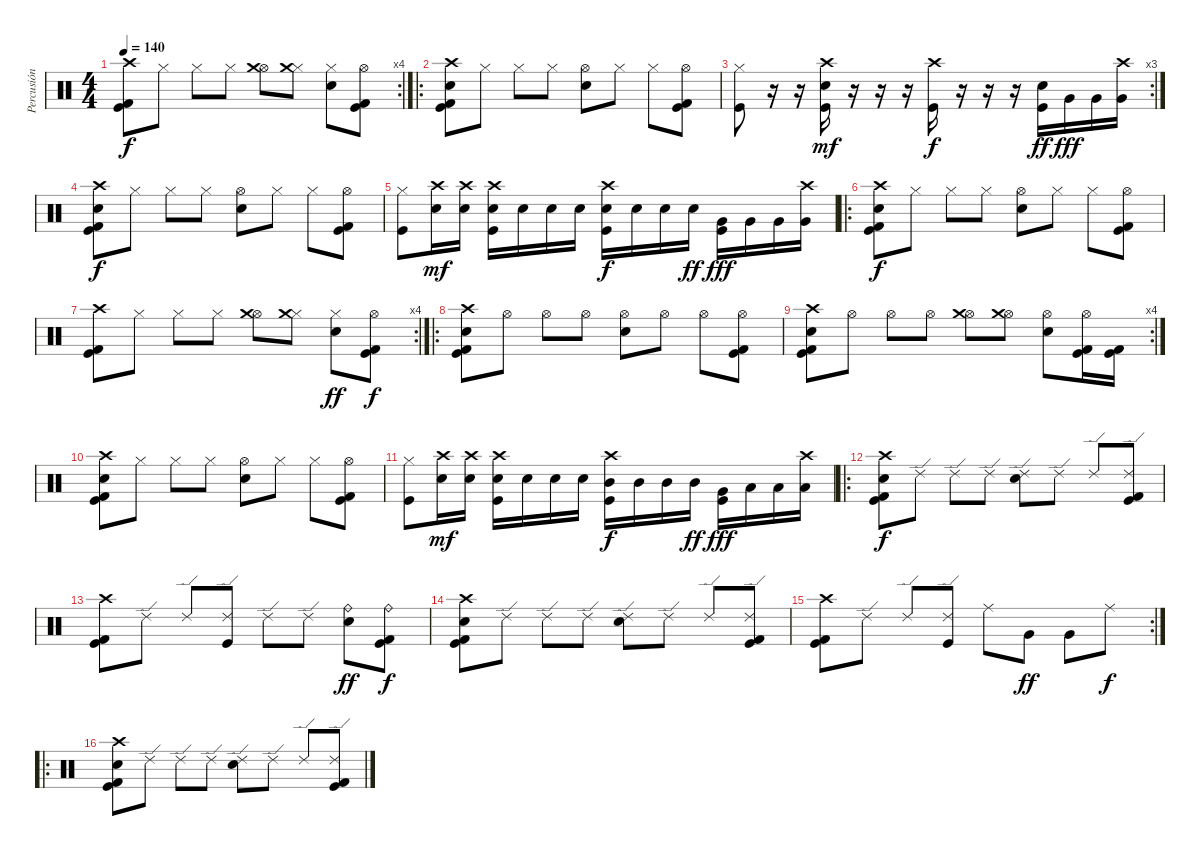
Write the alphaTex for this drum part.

\track ("Percusión" "Percusión") {instrument percussion}
\staff {score}
\articulation defaults
\rc 4
\ts (4 4)
\tempo 140
\clef neutral
\ks c
("Crash high (hit)" "Kick (hit)" "Kick (hit) 2").8{dy f} "Hi-Hat (closed)".8 "Hi-Hat (closed)".8 "Hi-Hat (closed)".8 ("Hi-Hat (open)" "Crash medium (hit)").8 ("Hi-Hat (closed)" "Crash medium (hit)").8 ("Hi-Hat (closed)" "Electric Snare (hit)").8 ("Hi-Hat (open)" "Kick (hit) 2" "Kick (hit)").8 |
\ro
("Crash high (hit)" "Electric Snare (hit)" "Kick (hit)" "Kick (hit) 2").8 "Hi-Hat (closed)".8 "Hi-Hat (closed)".8 "Hi-Hat (closed)".8 ("Hi-Hat (open)" "Electric Snare (hit)").8 "Hi-Hat (closed)".8 "Hi-Hat (closed)".8 ("Hi-Hat (open)" "Kick (hit) 2" "Kick (hit)").8 |
\rc 3
("Hi-Hat (closed)" "Kick (hit)").8 r.16 r.16 ("Crash high (hit)" "Electric Snare (hit)" "Kick (hit)").16{dy mf} r.16 r.16 r.16 ("Crash high (hit)" "Kick (hit)").16{dy f} r.16 r.16 r.16 ("Electric Snare (hit)" "Kick (hit)").16{dy ff} "Very Low Tom (hit)".16{dy fff} "Very Low Tom (hit)".16 ("Crash high (hit)" "Very Low Tom (hit)").16 |
("Crash high (hit)" "Electric Snare (hit)" "Kick (hit)" "Kick (hit) 2").8{dy f} "Hi-Hat (closed)".8 "Hi-Hat (closed)".8 "Hi-Hat (closed)".8 ("Hi-Hat (open)" "Electric Snare (hit)").8 "Hi-Hat (closed)".8 "Hi-Hat (closed)".8 ("Hi-Hat (open)" "Kick (hit) 2" "Kick (hit)").8 |
("Hi-Hat (closed)" "Kick (hit)").8 ("Crash high (hit)" "Electric Snare (hit)").16{dy mf} ("Crash high (hit)" "Electric Snare (hit)").16 ("Crash high (hit)" "Electric Snare (hit)" "Kick (hit)").16 "Electric Snare (hit)".16 "Electric Snare (hit)".16 "Electric Snare (hit)".16 ("Crash high (hit)" "Electric Snare (hit)" "Kick (hit)").16{dy f} "Electric Snare (hit)".16 "Electric Snare (hit)".16 "Electric Snare (hit)".16{dy ff} ("Very Low Tom (hit)" "Kick (hit)").16{dy fff} "Very Low Tom (hit)".16 "Very Low Tom (hit)".16 ("Crash high (hit)" "Very Low Tom (hit)").16 |
\ro
("Crash high (hit)" "Electric Snare (hit)" "Kick (hit)" "Kick (hit) 2").8{dy f} "Hi-Hat (closed)".8 "Hi-Hat (closed)".8 "Hi-Hat (closed)".8 ("Hi-Hat (open)" "Electric Snare (hit)").8 "Hi-Hat (closed)".8 "Hi-Hat (closed)".8 ("Hi-Hat (open)" "Kick (hit) 2" "Kick (hit)").8 |
\rc 4
("Crash high (hit)" "Kick (hit)" "Kick (hit) 2").8 "Hi-Hat (closed)".8 "Hi-Hat (closed)".8 "Hi-Hat (closed)".8 ("Hi-Hat (open)" "Crash medium (hit)").8 ("Hi-Hat (closed)" "Crash medium (hit)").8 ("Hi-Hat (closed)" "Electric Snare (hit)").8{dy ff} ("Hi-Hat (open)" "Kick (hit) 2" "Kick (hit)").8{dy f} |
\ro
("Crash high (hit)" "Electric Snare (hit)" "Kick (hit)" "Kick (hit) 2").8 "Hi-Hat (open)".8 "Hi-Hat (open)".8 "Hi-Hat (open)".8 ("Hi-Hat (open)" "Electric Snare (hit)").8 "Hi-Hat (open)".8 "Hi-Hat (open)".8 ("Hi-Hat (open)" "Kick (hit) 2" "Kick (hit)").8 |
\rc 4
("Crash high (hit)" "Electric Snare (hit)" "Kick (hit)" "Kick (hit) 2").8 "Hi-Hat (open)".8 "Hi-Hat (open)".8 "Hi-Hat (open)".8 ("Hi-Hat (open)" "Crash medium (hit)").8 ("Hi-Hat (open)" "Crash medium (hit)").8 ("Hi-Hat (open)" "Electric Snare (hit)").8 ("Hi-Hat (open)" "Kick (hit) 2" "Kick (hit)").16 ("Kick (hit) 2" "Kick (hit)").16 |
("Crash high (hit)" "Electric Snare (hit)" "Kick (hit)" "Kick (hit) 2").8 "Hi-Hat (closed)".8 "Hi-Hat (closed)".8 "Hi-Hat (closed)".8 ("Hi-Hat (open)" "Electric Snare (hit)").8 "Hi-Hat (closed)".8 "Hi-Hat (closed)".8 ("Hi-Hat (open)" "Kick (hit) 2" "Kick (hit)").8 |
("Hi-Hat (closed)" "Kick (hit)").8 ("Crash high (hit)" "Electric Snare (hit)").16{dy mf} ("Crash high (hit)" "Electric Snare (hit)").16 ("Crash high (hit)" "Electric Snare (hit)" "Kick (hit)").16 "Electric Snare (hit)".16 "Electric Snare (hit)".16 "Electric Snare (hit)".16 ("Crash high (hit)" "Mid Tom (hit)" "Kick (hit)").16{dy f} "Mid Tom (hit)".16 "Mid Tom (hit)".16 "Mid Tom (hit)".16{dy ff} ("Very Low Tom (hit)" "Kick (hit)").16{dy fff} "Low Floor Tom (hit)".16 "Low Floor Tom (hit)".16 ("Crash high (hit)" "Low Floor Tom (hit)").16 |
\ro
("Crash high (hit)" "Electric Snare (hit)" "Kick (hit)" "Kick (hit) 2").8{dy f} "Ride (edge) 2".8 "Ride (edge) 2".8 "Ride (edge) 2".8 ("Ride (edge) 2" "Electric Snare (hit)").8 "Ride (edge) 2".8 "Ride (edge) 2".8 ("Ride (edge) 2" "Kick (hit) 2" "Kick (hit)").8 |
("Crash high (hit)" "Kick (hit)" "Kick (hit) 2").8 "Ride (edge) 2".8 "Ride (edge) 2".8 ("Ride (edge) 2" "Kick (hit)").8 "Ride (edge) 2".8 "Ride (edge) 2".8 ("Ride (bell)" "Electric Snare (hit)").8{dy ff} ("Ride (bell)" "Kick (hit) 2" "Kick (hit)").8{dy f} |
("Crash high (hit)" "Electric Snare (hit)" "Kick (hit)" "Kick (hit) 2").8 "Ride (edge) 2".8 "Ride (edge) 2".8 "Ride (edge) 2".8 ("Ride (edge) 2" "Electric Snare (hit)").8 "Ride (edge) 2".8 "Ride (edge) 2".8 ("Ride (edge) 2" "Kick (hit) 2" "Kick (hit)").8 |
\rc 2
("Crash high (hit)" "Kick (hit)" "Kick (hit) 2").8 "Ride (edge) 2".8 "Ride (edge) 2".8 ("Ride (edge) 2" "Kick (hit)").8 "Ride (middle)".8 "Very Low Tom (hit)".8{dy ff} "Very Low Tom (hit)".8 "Ride (middle)".8{dy f} |
\ro
("Crash high (hit)" "Electric Snare (hit)" "Kick (hit)" "Kick (hit) 2").8 "Ride (edge) 2".8 "Ride (edge) 2".8 "Ride (edge) 2".8 ("Ride (edge) 2" "Electric Snare (hit)").8 "Ride (edge) 2".8 "Ride (edge) 2".8 ("Ride (edge) 2" "Kick (hit) 2" "Kick (hit)").8
